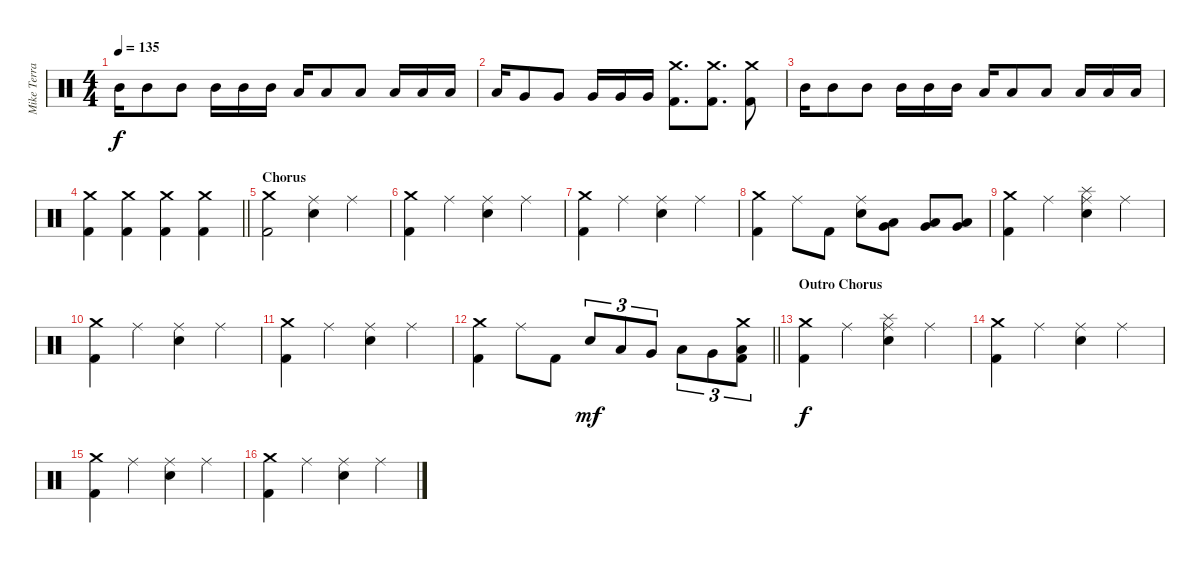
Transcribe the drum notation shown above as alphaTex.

\track ("Mike Terrana" "Mike Terra") {instrument percussion}
\staff {score}
\articulation defaults
\ts (4 4)
\tempo 135
\clef neutral
\ks c "Mid Tom (hit)".16{dy f} "Mid Tom (hit)".8 "Mid Tom (hit)".8 "Mid Tom (hit)".16 "Mid Tom (hit)".16 "Mid Tom (hit)".16 "Low Tom (hit)".16 "Low Tom (hit)".8 "Low Tom (hit)".8 "Low Tom (hit)".16 "Low Tom (hit)".16 "Low Tom (hit)".16
|
"Low Tom (hit)".16 "Very Low Tom (hit)".8 "Very Low Tom (hit)".8 "Very Low Tom (hit)".16 "Very Low Tom (hit)".16 "Very Low Tom (hit)".16 ("Crash medium (hit)" "Kick (hit) 2").8{d} ("Crash medium (hit)" "Kick (hit) 2").8{d} ("Crash medium (hit)" "Kick (hit) 2").8 |
"Mid Tom (hit)".16 "Mid Tom (hit)".8 "Mid Tom (hit)".8 "Mid Tom (hit)".16 "Mid Tom (hit)".16 "Mid Tom (hit)".16 "Low Tom (hit)".16 "Low Tom (hit)".8 "Low Tom (hit)".8 "Low Tom (hit)".16 "Low Tom (hit)".16 "Low Tom (hit)".16 |
\barLineRight lightlight
("Crash medium (hit)" "Kick (hit) 2").4 ("Crash medium (hit)" "Kick (hit) 2").4 ("Crash medium (hit)" "Kick (hit) 2").4 ("Crash medium (hit)" "Kick (hit) 2").4 |
\section ("" "Chorus")
("Crash medium (hit)" "Kick (hit) 2").2 ("Ride (middle)" "Snare (hit) 2").4 "Ride (middle)".4 |
("Crash medium (hit)" "Kick (hit) 2").4 "Ride (middle)".4 ("Ride (middle)" "Snare (hit) 2").4 "Ride (middle)".4 |
("Crash medium (hit)" "Kick (hit) 2").4 "Ride (middle)".4 ("Ride (middle)" "Snare (hit) 2").4 "Ride (middle)".4 |
("Crash medium (hit)" "Kick (hit) 2").4 "Ride (middle)".8 "Kick (hit) 2".8 ("Ride (middle)" "Snare (hit) 2").8 ("Low Tom (hit)" "Very Low Tom (hit)").8 ("Low Tom (hit)" "Very Low Tom (hit)").8 ("Very Low Tom (hit)" "Low Floor Tom (hit)").8 |
("Crash medium (hit)" "Kick (hit) 2").4 "Ride (middle)".4 ("Ride (middle)" "Splash (hit)" "Snare (hit) 2").4 "Ride (middle)".4 |
("Crash medium (hit)" "Kick (hit) 2").4 "Ride (middle)".4 ("Ride (middle)" "Snare (hit) 2").4 "Ride (middle)".4 |
("Crash medium (hit)" "Kick (hit) 2").4 "Ride (middle)".4 ("Ride (middle)" "Snare (hit) 2").4 "Ride (middle)".4 |
\barLineRight lightlight
("Crash medium (hit)" "Kick (hit) 2").4 "Ride (middle)".8 "Kick (hit) 2".8 "Snare (hit) 2".8{tu (3 2) dy mf} "Low Tom (hit)".8{tu (3 2)} "Very Low Tom (hit)".8{tu (3 2)} "Low Tom (hit)".8{tu (3 2)} "Very Low Tom (hit)".8{tu (3 2)} ("Crash medium (hit)" "Low Floor Tom (hit)" "Kick (hit) 2").8{tu (3 2)} |
\section ("" "Outro Chorus")
("Crash medium (hit)" "Kick (hit) 2").4{dy f} "Ride (middle)".4 ("Ride (middle)" "Splash (hit)" "Snare (hit) 2").4 "Ride (middle)".4 |
("Crash medium (hit)" "Kick (hit) 2").4 "Ride (middle)".4 ("Ride (middle)" "Snare (hit) 2").4 "Ride (middle)".4 |
("Crash medium (hit)" "Kick (hit) 2").4 "Ride (middle)".4 ("Ride (middle)" "Snare (hit) 2").4 "Ride (middle)".4 |
("Crash medium (hit)" "Kick (hit) 2").4 "Ride (middle)".4 ("Ride (middle)" "Snare (hit) 2").4 "Ride (middle)".4
